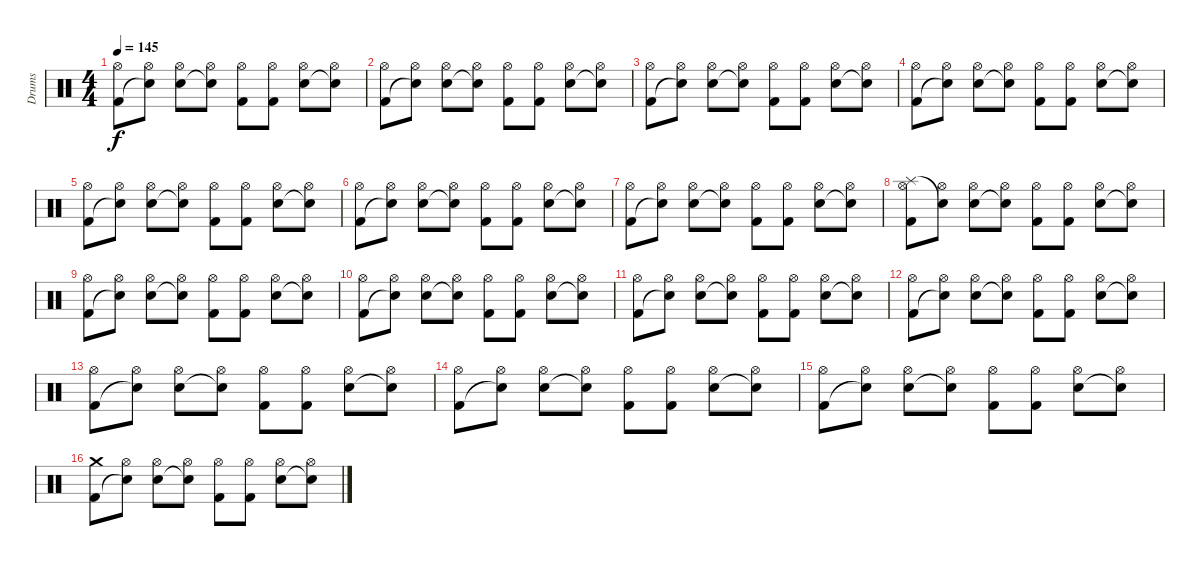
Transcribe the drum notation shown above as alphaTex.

\track ("Drums" "Drums") {instrument percussion}
\staff {score}
\articulation defaults
\ts (4 4)
\tempo 145
\clef neutral
\ks c
("Hi-Hat (open)" "Kick (hit) 2").8{dy f} ("Hi-Hat (open)" "Snare (hit)"{t}).8 ("Hi-Hat (open)" "Electric Snare (hit)").8 ("Hi-Hat (open)" "Snare (hit)"{t}).8 ("Hi-Hat (open)" "Kick (hit) 2").8 ("Hi-Hat (open)" "Kick (hit) 2").8 ("Hi-Hat (open)" "Electric Snare (hit)").8 ("Hi-Hat (open)" "Snare (hit)"{t}).8 |
("Hi-Hat (open)" "Kick (hit) 2").8 ("Hi-Hat (open)" "Snare (hit)"{t}).8 ("Hi-Hat (open)" "Electric Snare (hit)").8 ("Hi-Hat (open)" "Snare (hit)"{t}).8 ("Hi-Hat (open)" "Kick (hit) 2").8 ("Hi-Hat (open)" "Kick (hit) 2").8 ("Hi-Hat (open)" "Electric Snare (hit)").8 ("Hi-Hat (open)" "Snare (hit)"{t}).8 |
("Hi-Hat (open)" "Kick (hit) 2").8 ("Hi-Hat (open)" "Snare (hit)"{t}).8 ("Hi-Hat (open)" "Electric Snare (hit)").8 ("Hi-Hat (open)" "Snare (hit)"{t}).8 ("Hi-Hat (open)" "Kick (hit) 2").8 ("Hi-Hat (open)" "Kick (hit) 2").8 ("Hi-Hat (open)" "Electric Snare (hit)").8 ("Hi-Hat (open)" "Snare (hit)"{t}).8 |
("Hi-Hat (open)" "Kick (hit) 2").8 ("Hi-Hat (open)" "Snare (hit)"{t}).8 ("Hi-Hat (open)" "Electric Snare (hit)").8 ("Hi-Hat (open)" "Snare (hit)"{t}).8 ("Hi-Hat (open)" "Kick (hit) 2").8 ("Hi-Hat (open)" "Kick (hit) 2").8 ("Hi-Hat (open)" "Electric Snare (hit)").8 ("Hi-Hat (open)" "Snare (hit)"{t}).8 |
("Hi-Hat (open)" "Kick (hit) 2").8 ("Hi-Hat (open)" "Snare (hit)"{t}).8 ("Hi-Hat (open)" "Electric Snare (hit)").8 ("Hi-Hat (open)" "Snare (hit)"{t}).8 ("Hi-Hat (open)" "Kick (hit) 2").8 ("Hi-Hat (open)" "Kick (hit) 2").8 ("Hi-Hat (open)" "Electric Snare (hit)").8 ("Hi-Hat (open)" "Snare (hit)"{t}).8 |
("Hi-Hat (open)" "Kick (hit) 2").8 ("Hi-Hat (open)" "Snare (hit)"{t}).8 ("Hi-Hat (open)" "Electric Snare (hit)").8 ("Hi-Hat (open)" "Snare (hit)"{t}).8 ("Hi-Hat (open)" "Kick (hit) 2").8 ("Hi-Hat (open)" "Kick (hit) 2").8 ("Hi-Hat (open)" "Electric Snare (hit)").8 ("Hi-Hat (open)" "Snare (hit)"{t}).8 |
("Hi-Hat (open)" "Kick (hit) 2").8 ("Hi-Hat (open)" "Snare (hit)"{t}).8 ("Hi-Hat (open)" "Electric Snare (hit)").8 ("Hi-Hat (open)" "Snare (hit)"{t}).8 ("Hi-Hat (open)" "Kick (hit) 2").8 ("Hi-Hat (open)" "Kick (hit) 2").8 ("Hi-Hat (open)" "Electric Snare (hit)").8 ("Hi-Hat (open)" "Snare (hit)"{t}).8 |
("Hi-Hat (open)" "Splash (hit)" "Kick (hit) 2").8 ("Hi-Hat (open)" "Snare (hit)"{t}).8 ("Hi-Hat (open)" "Electric Snare (hit)").8 ("Hi-Hat (open)" "Snare (hit)"{t}).8 ("Hi-Hat (open)" "Kick (hit) 2").8 ("Hi-Hat (open)" "Kick (hit) 2").8 ("Hi-Hat (open)" "Electric Snare (hit)").8 ("Hi-Hat (open)" "Snare (hit)"{t}).8 |
("Hi-Hat (open)" "Kick (hit) 2").8 ("Hi-Hat (open)" "Snare (hit)"{t}).8 ("Hi-Hat (open)" "Electric Snare (hit)").8 ("Hi-Hat (open)" "Snare (hit)"{t}).8 ("Hi-Hat (open)" "Kick (hit) 2").8 ("Hi-Hat (open)" "Kick (hit) 2").8 ("Hi-Hat (open)" "Electric Snare (hit)").8 ("Hi-Hat (open)" "Snare (hit)"{t}).8 |
("Hi-Hat (open)" "Kick (hit) 2").8 ("Hi-Hat (open)" "Snare (hit)"{t}).8 ("Hi-Hat (open)" "Electric Snare (hit)").8 ("Hi-Hat (open)" "Snare (hit)"{t}).8 ("Hi-Hat (open)" "Kick (hit) 2").8 ("Hi-Hat (open)" "Kick (hit) 2").8 ("Hi-Hat (open)" "Electric Snare (hit)").8 ("Hi-Hat (open)" "Snare (hit)"{t}).8 |
("Hi-Hat (open)" "Kick (hit) 2").8 ("Hi-Hat (open)" "Snare (hit)"{t}).8 ("Hi-Hat (open)" "Electric Snare (hit)").8 ("Hi-Hat (open)" "Snare (hit)"{t}).8 ("Hi-Hat (open)" "Kick (hit) 2").8 ("Hi-Hat (open)" "Kick (hit) 2").8 ("Hi-Hat (open)" "Electric Snare (hit)").8 ("Hi-Hat (open)" "Snare (hit)"{t}).8 |
("Hi-Hat (open)" "Kick (hit) 2").8 ("Hi-Hat (open)" "Snare (hit)"{t}).8 ("Hi-Hat (open)" "Electric Snare (hit)").8 ("Hi-Hat (open)" "Snare (hit)"{t}).8 ("Hi-Hat (open)" "Kick (hit) 2").8 ("Hi-Hat (open)" "Kick (hit) 2").8 ("Hi-Hat (open)" "Electric Snare (hit)").8 ("Hi-Hat (open)" "Snare (hit)"{t}).8 |
("Hi-Hat (open)" "Kick (hit) 2").8 ("Hi-Hat (open)" "Snare (hit)"{t}).8 ("Hi-Hat (open)" "Electric Snare (hit)").8 ("Hi-Hat (open)" "Snare (hit)"{t}).8 ("Hi-Hat (open)" "Kick (hit) 2").8 ("Hi-Hat (open)" "Kick (hit) 2").8 ("Hi-Hat (open)" "Electric Snare (hit)").8 ("Hi-Hat (open)" "Snare (hit)"{t}).8 |
("Hi-Hat (open)" "Kick (hit) 2").8 ("Hi-Hat (open)" "Snare (hit)"{t}).8 ("Hi-Hat (open)" "Electric Snare (hit)").8 ("Hi-Hat (open)" "Snare (hit)"{t}).8 ("Hi-Hat (open)" "Kick (hit) 2").8 ("Hi-Hat (open)" "Kick (hit) 2").8 ("Hi-Hat (open)" "Electric Snare (hit)").8 ("Hi-Hat (open)" "Snare (hit)"{t}).8 |
("Hi-Hat (open)" "Kick (hit) 2").8 ("Hi-Hat (open)" "Snare (hit)"{t}).8 ("Hi-Hat (open)" "Electric Snare (hit)").8 ("Hi-Hat (open)" "Snare (hit)"{t}).8 ("Hi-Hat (open)" "Kick (hit) 2").8 ("Hi-Hat (open)" "Kick (hit) 2").8 ("Hi-Hat (open)" "Electric Snare (hit)").8 ("Hi-Hat (open)" "Snare (hit)"{t}).8 |
("Crash medium (hit)" "Kick (hit) 2").8 ("Hi-Hat (open)" "Snare (hit)"{t}).8 ("Hi-Hat (open)" "Electric Snare (hit)").8 ("Hi-Hat (open)" "Snare (hit)"{t}).8 ("Hi-Hat (open)" "Kick (hit) 2").8 ("Hi-Hat (open)" "Kick (hit) 2").8 ("Hi-Hat (open)" "Electric Snare (hit)").8 ("Hi-Hat (open)" "Snare (hit)"{t}).8
